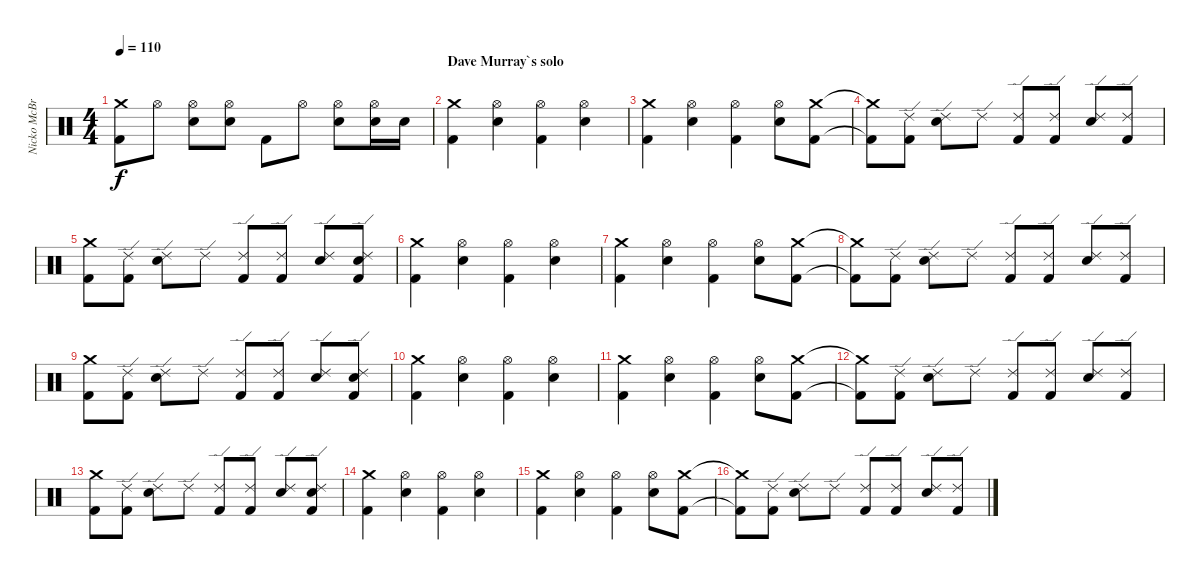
\track ("Nicko McBrain" "Nicko McBr") {instrument percussion}
\staff {score}
\articulation defaults
\ts (4 4)
\tempo 110
\clef neutral
\ks c
("Crash medium (hit)" "Kick (hit) 2").8{dy f} "Hi-Hat (open)".8 ("Snare (hit) 2" "Hi-Hat (open)").8 ("Snare (hit) 2" "Hi-Hat (open)").8 "Kick (hit) 2".8 "Hi-Hat (open)".8 ("Snare (hit) 2" "Hi-Hat (open)").8 ("Snare (hit) 2" "Hi-Hat (open)").16 "Snare (hit) 2".16 |
\section ("" "Dave Murray`s solo")
("Crash medium (hit)" "Kick (hit) 2").4 ("Snare (hit) 2" "Hi-Hat (open)").4 ("Hi-Hat (open)" "Kick (hit) 2").4 ("Snare (hit) 2" "Hi-Hat (open)").4 |
("Crash medium (hit)" "Kick (hit) 2").4 ("Snare (hit) 2" "Hi-Hat (open)").4 ("Hi-Hat (open)" "Kick (hit) 2").4 ("Snare (hit) 2" "Hi-Hat (open)").8 ("Crash medium (hit)" "Kick (hit) 2").8 |
("Crash medium (hit)"{t} "Kick (hit) 2"{t}).8 ("Ride (edge) 2" "Kick (hit) 2").8 ("Snare (hit) 2" "Ride (edge) 2").8 "Ride (edge) 2".8 ("Ride (edge) 2" "Kick (hit) 2").8 ("Ride (edge) 2" "Kick (hit) 2").8 ("Snare (hit) 2" "Ride (edge) 2").8 ("Ride (edge) 2" "Kick (hit) 2").8 |
("Crash medium (hit)" "Kick (hit) 2").8 ("Ride (edge) 2" "Kick (hit) 2").8 ("Snare (hit) 2" "Ride (edge) 2").8 "Ride (edge) 2".8 ("Ride (edge) 2" "Kick (hit) 2").8 ("Ride (edge) 2" "Kick (hit) 2").8 ("Snare (hit) 2" "Ride (edge) 2").8 ("Snare (hit) 2" "Ride (edge) 2" "Kick (hit) 2").8 |
("Crash medium (hit)" "Kick (hit) 2").4 ("Snare (hit) 2" "Hi-Hat (open)").4 ("Hi-Hat (open)" "Kick (hit) 2").4 ("Snare (hit) 2" "Hi-Hat (open)").4 |
("Crash medium (hit)" "Kick (hit) 2").4 ("Snare (hit) 2" "Hi-Hat (open)").4 ("Hi-Hat (open)" "Kick (hit) 2").4 ("Snare (hit) 2" "Hi-Hat (open)").8 ("Crash medium (hit)" "Kick (hit) 2").8 |
("Crash medium (hit)"{t} "Kick (hit) 2"{t}).8 ("Ride (edge) 2" "Kick (hit) 2").8 ("Snare (hit) 2" "Ride (edge) 2").8 "Ride (edge) 2".8 ("Ride (edge) 2" "Kick (hit) 2").8 ("Ride (edge) 2" "Kick (hit) 2").8 ("Snare (hit) 2" "Ride (edge) 2").8 ("Ride (edge) 2" "Kick (hit) 2").8 |
("Crash medium (hit)" "Kick (hit) 2").8 ("Ride (edge) 2" "Kick (hit) 2").8 ("Snare (hit) 2" "Ride (edge) 2").8 "Ride (edge) 2".8 ("Ride (edge) 2" "Kick (hit) 2").8 ("Ride (edge) 2" "Kick (hit) 2").8 ("Snare (hit) 2" "Ride (edge) 2").8 ("Snare (hit) 2" "Ride (edge) 2" "Kick (hit) 2").8 |
\section ("" "")
("Crash medium (hit)" "Kick (hit) 2").4 ("Snare (hit) 2" "Hi-Hat (open)").4 ("Hi-Hat (open)" "Kick (hit) 2").4 ("Snare (hit) 2" "Hi-Hat (open)").4 |
("Crash medium (hit)" "Kick (hit) 2").4 ("Snare (hit) 2" "Hi-Hat (open)").4 ("Hi-Hat (open)" "Kick (hit) 2").4 ("Snare (hit) 2" "Hi-Hat (open)").8 ("Crash medium (hit)" "Kick (hit) 2").8 |
("Crash medium (hit)"{t} "Kick (hit) 2"{t}).8 ("Ride (edge) 2" "Kick (hit) 2").8 ("Snare (hit) 2" "Ride (edge) 2").8 "Ride (edge) 2".8 ("Ride (edge) 2" "Kick (hit) 2").8 ("Ride (edge) 2" "Kick (hit) 2").8 ("Snare (hit) 2" "Ride (edge) 2").8 ("Ride (edge) 2" "Kick (hit) 2").8 |
("Crash medium (hit)" "Kick (hit) 2").8 ("Ride (edge) 2" "Kick (hit) 2").8 ("Snare (hit) 2" "Ride (edge) 2").8 "Ride (edge) 2".8 ("Ride (edge) 2" "Kick (hit) 2").8 ("Ride (edge) 2" "Kick (hit) 2").8 ("Snare (hit) 2" "Ride (edge) 2").8 ("Snare (hit) 2" "Ride (edge) 2" "Kick (hit) 2").8 |
("Crash medium (hit)" "Kick (hit) 2").4 ("Snare (hit) 2" "Hi-Hat (open)").4 ("Hi-Hat (open)" "Kick (hit) 2").4 ("Snare (hit) 2" "Hi-Hat (open)").4 |
("Crash medium (hit)" "Kick (hit) 2").4 ("Snare (hit) 2" "Hi-Hat (open)").4 ("Hi-Hat (open)" "Kick (hit) 2").4 ("Snare (hit) 2" "Hi-Hat (open)").8 ("Crash medium (hit)" "Kick (hit) 2").8 |
("Crash medium (hit)"{t} "Kick (hit) 2"{t}).8 ("Ride (edge) 2" "Kick (hit) 2").8 ("Snare (hit) 2" "Ride (edge) 2").8 "Ride (edge) 2".8 ("Ride (edge) 2" "Kick (hit) 2").8 ("Ride (edge) 2" "Kick (hit) 2").8 ("Snare (hit) 2" "Ride (edge) 2").8 ("Ride (edge) 2" "Kick (hit) 2").8
